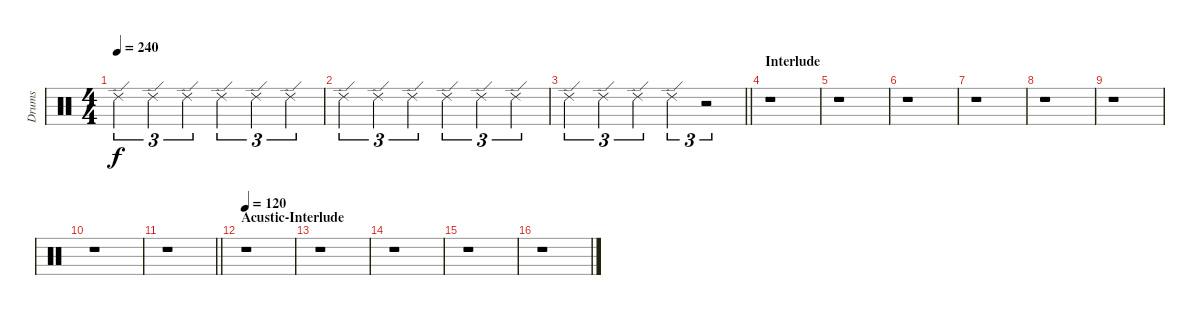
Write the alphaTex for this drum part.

\track ("Drums" "Drums") {instrument percussion}
\staff {score}
\articulation defaults
\ts (4 4)
\tempo 240
\clef neutral
\ks c "Ride (edge) 2".4{tu (3 2) dy f} "Ride (edge) 2".4{tu (3 2)} "Ride (edge) 2".4{tu (3 2)} "Ride (edge) 2".4{tu (3 2)} "Ride (edge) 2".4{tu (3 2)} "Ride (edge) 2".4{tu (3 2)}
|
"Ride (edge) 2".4{tu (3 2)} "Ride (edge) 2".4{tu (3 2)} "Ride (edge) 2".4{tu (3 2)} "Ride (edge) 2".4{tu (3 2)} "Ride (edge) 2".4{tu (3 2)} "Ride (edge) 2".4{tu (3 2)} |
\barLineRight lightlight "Ride (edge) 2".4{tu (3 2)} "Ride (edge) 2".4{tu (3 2)} "Ride (edge) 2".4{tu (3 2)} "Ride (edge) 2".4{tu (3 2)}
r.2{tu (3 2)} |
\section ("" "Interlude")
r.1 |
r.1 |
r.1 |
r.1 |
r.1 |
r.1 |
r.1 |
\barLineRight lightlight
r.1 |
\section ("" "Acustic-Interlude")
\tempo 120
r.1 |
r.1 |
r.1 |
r.1 |
r.1
